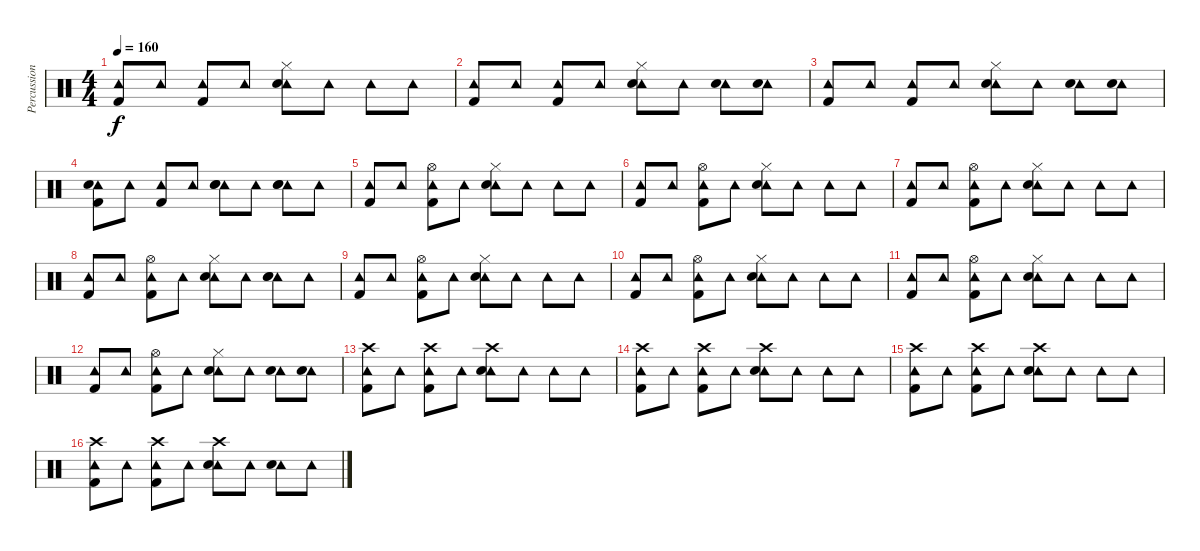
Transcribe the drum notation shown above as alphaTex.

\track ("Percussion" "Percussion") {instrument percussion}
\staff {score}
\articulation defaults
\ts (4 4)
\tempo 160
\clef neutral
\ks c
("Tambourine (hit)" "Kick (hit) 2").8{dy f} "Tambourine (hit)".8 ("Tambourine (hit)" "Kick (hit) 2").8 "Tambourine (hit)".8 ("Tambourine (hit)" "Snare (hit) 2" "Hi-Hat (closed)").8 "Tambourine (hit)".8 "Tambourine (hit)".8 "Tambourine (hit)".8 |
("Tambourine (hit)" "Kick (hit) 2").8 "Tambourine (hit)".8 ("Tambourine (hit)" "Kick (hit) 2").8 "Tambourine (hit)".8 ("Tambourine (hit)" "Snare (hit) 2" "Hi-Hat (closed)").8 "Tambourine (hit)".8 ("Tambourine (hit)" "Snare (hit) 2").8 ("Tambourine (hit)" "Snare (hit) 2").8 |
("Tambourine (hit)" "Kick (hit) 2").8 "Tambourine (hit)".8 ("Tambourine (hit)" "Kick (hit) 2").8 "Tambourine (hit)".8 ("Tambourine (hit)" "Snare (hit) 2" "Hi-Hat (closed)").8 "Tambourine (hit)".8 ("Tambourine (hit)" "Snare (hit) 2").8 ("Tambourine (hit)" "Snare (hit) 2").8 |
("Tambourine (hit)" "Snare (hit) 2" "Kick (hit) 2").8 "Tambourine (hit)".8 ("Tambourine (hit)" "Kick (hit) 2").8 "Tambourine (hit)".8 ("Tambourine (hit)" "Snare (hit) 2" "Snare (hit) 2").8 "Tambourine (hit)".8 ("Tambourine (hit)" "Snare (hit) 2" "Snare (hit) 2").8 "Tambourine (hit)".8 |
("Tambourine (hit)" "Kick (hit) 2").8 "Tambourine (hit)".8 ("Tambourine (hit)" "Hi-Hat (open)" "Kick (hit) 2").8 "Tambourine (hit)".8 ("Tambourine (hit)" "Snare (hit) 2" "Hi-Hat (closed)").8 "Tambourine (hit)".8 "Tambourine (hit)".8 "Tambourine (hit)".8 |
("Tambourine (hit)" "Kick (hit) 2").8 "Tambourine (hit)".8 ("Tambourine (hit)" "Hi-Hat (open)" "Kick (hit) 2").8 "Tambourine (hit)".8 ("Tambourine (hit)" "Snare (hit) 2" "Hi-Hat (closed)").8 "Tambourine (hit)".8 "Tambourine (hit)".8 "Tambourine (hit)".8 |
("Tambourine (hit)" "Kick (hit) 2").8 "Tambourine (hit)".8 ("Tambourine (hit)" "Hi-Hat (open)" "Kick (hit) 2").8 "Tambourine (hit)".8 ("Tambourine (hit)" "Snare (hit) 2" "Hi-Hat (closed)").8 "Tambourine (hit)".8 "Tambourine (hit)".8 "Tambourine (hit)".8 |
("Tambourine (hit)" "Kick (hit) 2").8 "Tambourine (hit)".8 ("Tambourine (hit)" "Hi-Hat (open)" "Kick (hit) 2").8 "Tambourine (hit)".8 ("Tambourine (hit)" "Snare (hit) 2" "Hi-Hat (closed)").8 "Tambourine (hit)".8 ("Tambourine (hit)" "Snare (hit) 2" "Snare (hit) 2").8 "Tambourine (hit)".8 |
("Tambourine (hit)" "Kick (hit) 2").8 "Tambourine (hit)".8 ("Tambourine (hit)" "Hi-Hat (open)" "Kick (hit) 2").8 "Tambourine (hit)".8 ("Tambourine (hit)" "Snare (hit) 2" "Hi-Hat (closed)").8 "Tambourine (hit)".8 "Tambourine (hit)".8 "Tambourine (hit)".8 |
("Tambourine (hit)" "Kick (hit) 2").8 "Tambourine (hit)".8 ("Tambourine (hit)" "Hi-Hat (open)" "Kick (hit) 2").8 "Tambourine (hit)".8 ("Tambourine (hit)" "Snare (hit) 2" "Hi-Hat (closed)").8 "Tambourine (hit)".8 "Tambourine (hit)".8 "Tambourine (hit)".8 |
("Tambourine (hit)" "Kick (hit) 2").8 "Tambourine (hit)".8 ("Tambourine (hit)" "Hi-Hat (open)" "Kick (hit) 2").8 "Tambourine (hit)".8 ("Tambourine (hit)" "Snare (hit) 2" "Hi-Hat (closed)").8 "Tambourine (hit)".8 "Tambourine (hit)".8 "Tambourine (hit)".8 |
("Tambourine (hit)" "Kick (hit) 2").8 "Tambourine (hit)".8 ("Tambourine (hit)" "Hi-Hat (open)" "Kick (hit) 2").8 "Tambourine (hit)".8 ("Tambourine (hit)" "Snare (hit) 2" "Hi-Hat (closed)").8 "Tambourine (hit)".8 ("Tambourine (hit)" "Snare (hit) 2").8 ("Tambourine (hit)" "Snare (hit) 2").8 |
("Tambourine (hit)" "Crash high (hit)" "Kick (hit) 2").8 "Tambourine (hit)".8 ("Tambourine (hit)" "Crash high (hit)" "Kick (hit) 2").8 "Tambourine (hit)".8 ("Tambourine (hit)" "Crash high (hit)" "Snare (hit) 2").8 "Tambourine (hit)".8 "Tambourine (hit)".8 "Tambourine (hit)".8 |
("Tambourine (hit)" "Crash high (hit)" "Kick (hit) 2").8 "Tambourine (hit)".8 ("Tambourine (hit)" "Crash high (hit)" "Kick (hit) 2").8 "Tambourine (hit)".8 ("Tambourine (hit)" "Crash high (hit)" "Snare (hit) 2").8 "Tambourine (hit)".8 "Tambourine (hit)".8 "Tambourine (hit)".8 |
("Tambourine (hit)" "Crash high (hit)" "Kick (hit) 2").8 "Tambourine (hit)".8 ("Tambourine (hit)" "Crash high (hit)" "Kick (hit) 2").8 "Tambourine (hit)".8 ("Tambourine (hit)" "Crash high (hit)" "Snare (hit) 2").8 "Tambourine (hit)".8 "Tambourine (hit)".8 "Tambourine (hit)".8 |
("Tambourine (hit)" "Crash high (hit)" "Kick (hit) 2").8 "Tambourine (hit)".8 ("Tambourine (hit)" "Crash high (hit)" "Kick (hit) 2").8 "Tambourine (hit)".8 ("Tambourine (hit)" "Crash high (hit)" "Snare (hit) 2").8 "Tambourine (hit)".8 ("Tambourine (hit)" "Snare (hit) 2").8 "Tambourine (hit)".8
